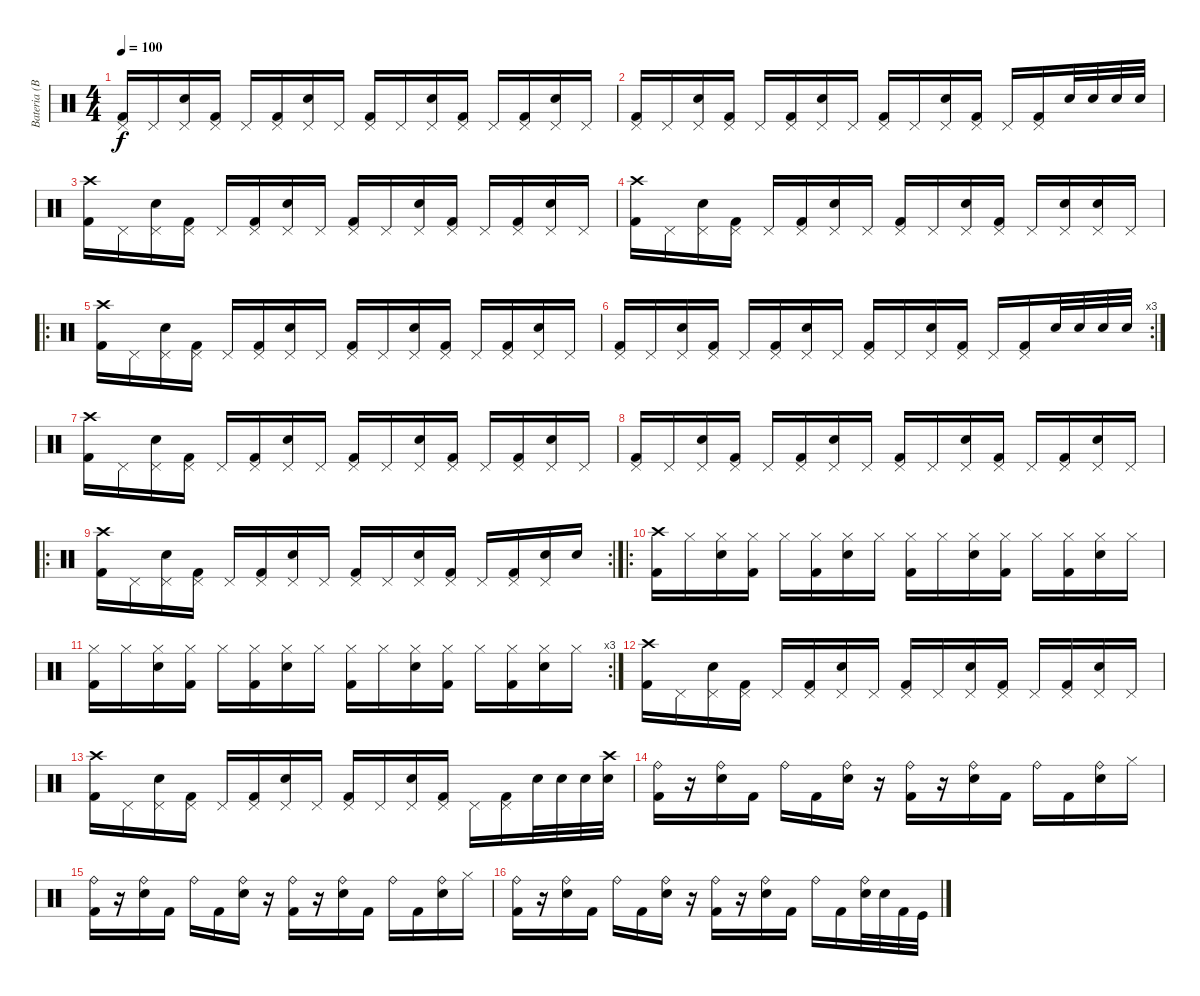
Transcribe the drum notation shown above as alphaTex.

\track ("Bateria (Bonfá)" "Bateria (B") {instrument percussion}
\staff {score}
\articulation defaults
\ts (4 4)
\tempo 100
\clef neutral
\ks c
("Pedal Hi-Hat (hit)" "Kick (hit) 2").16{dy f} "Pedal Hi-Hat (hit)".16 ("Pedal Hi-Hat (hit)" "Electric Snare (hit)").16 ("Pedal Hi-Hat (hit)" "Kick (hit) 2").16 "Pedal Hi-Hat (hit)".16 ("Pedal Hi-Hat (hit)" "Kick (hit) 2").16 ("Pedal Hi-Hat (hit)" "Electric Snare (hit)").16 "Pedal Hi-Hat (hit)".16 ("Pedal Hi-Hat (hit)" "Kick (hit) 2").16 "Pedal Hi-Hat (hit)".16 ("Pedal Hi-Hat (hit)" "Electric Snare (hit)").16 ("Pedal Hi-Hat (hit)" "Kick (hit) 2").16 "Pedal Hi-Hat (hit)".16 ("Pedal Hi-Hat (hit)" "Kick (hit) 2").16 ("Pedal Hi-Hat (hit)" "Electric Snare (hit)").16 "Pedal Hi-Hat (hit)".16 |
("Pedal Hi-Hat (hit)" "Kick (hit) 2").16 "Pedal Hi-Hat (hit)".16 ("Pedal Hi-Hat (hit)" "Electric Snare (hit)").16 ("Pedal Hi-Hat (hit)" "Kick (hit) 2").16 "Pedal Hi-Hat (hit)".16 ("Pedal Hi-Hat (hit)" "Kick (hit) 2").16 ("Pedal Hi-Hat (hit)" "Electric Snare (hit)").16 "Pedal Hi-Hat (hit)".16 ("Pedal Hi-Hat (hit)" "Kick (hit) 2").16 "Pedal Hi-Hat (hit)".16 ("Pedal Hi-Hat (hit)" "Electric Snare (hit)").16 ("Pedal Hi-Hat (hit)" "Kick (hit) 2").16 "Pedal Hi-Hat (hit)".16 ("Pedal Hi-Hat (hit)" "Kick (hit) 2").16 "Electric Snare (hit)".32 "Electric Snare (hit)".32 "Electric Snare (hit)".32 "Electric Snare (hit)".32 |
("Crash high (hit)" "Kick (hit) 2").16 "Pedal Hi-Hat (hit)".16 ("Pedal Hi-Hat (hit)" "Electric Snare (hit)").16 ("Pedal Hi-Hat (hit)" "Kick (hit) 2").16 "Pedal Hi-Hat (hit)".16 ("Pedal Hi-Hat (hit)" "Kick (hit) 2").16 ("Pedal Hi-Hat (hit)" "Electric Snare (hit)").16 "Pedal Hi-Hat (hit)".16 ("Pedal Hi-Hat (hit)" "Kick (hit) 2").16 "Pedal Hi-Hat (hit)".16 ("Pedal Hi-Hat (hit)" "Electric Snare (hit)").16 ("Pedal Hi-Hat (hit)" "Kick (hit) 2").16 "Pedal Hi-Hat (hit)".16 ("Pedal Hi-Hat (hit)" "Kick (hit) 2").16 ("Pedal Hi-Hat (hit)" "Electric Snare (hit)").16 "Pedal Hi-Hat (hit)".16 |
("Crash high (hit)" "Kick (hit) 2").16 "Pedal Hi-Hat (hit)".16 ("Pedal Hi-Hat (hit)" "Electric Snare (hit)").16 ("Pedal Hi-Hat (hit)" "Kick (hit) 2").16 "Pedal Hi-Hat (hit)".16 ("Pedal Hi-Hat (hit)" "Kick (hit) 2").16 ("Pedal Hi-Hat (hit)" "Electric Snare (hit)").16 "Pedal Hi-Hat (hit)".16 ("Pedal Hi-Hat (hit)" "Kick (hit) 2").16 "Pedal Hi-Hat (hit)".16 ("Pedal Hi-Hat (hit)" "Electric Snare (hit)").16 ("Pedal Hi-Hat (hit)" "Kick (hit) 2").16 "Pedal Hi-Hat (hit)".16 ("Pedal Hi-Hat (hit)" "Electric Snare (hit)").16 ("Pedal Hi-Hat (hit)" "Electric Snare (hit)").16 "Pedal Hi-Hat (hit)".16 |
\ro
("Crash high (hit)" "Kick (hit) 2").16 "Pedal Hi-Hat (hit)".16 ("Pedal Hi-Hat (hit)" "Electric Snare (hit)").16 ("Pedal Hi-Hat (hit)" "Kick (hit) 2").16 "Pedal Hi-Hat (hit)".16 ("Pedal Hi-Hat (hit)" "Kick (hit) 2").16 ("Pedal Hi-Hat (hit)" "Electric Snare (hit)").16 "Pedal Hi-Hat (hit)".16 ("Pedal Hi-Hat (hit)" "Kick (hit) 2").16 "Pedal Hi-Hat (hit)".16 ("Pedal Hi-Hat (hit)" "Electric Snare (hit)").16 ("Pedal Hi-Hat (hit)" "Kick (hit) 2").16 "Pedal Hi-Hat (hit)".16 ("Pedal Hi-Hat (hit)" "Kick (hit) 2").16 ("Pedal Hi-Hat (hit)" "Electric Snare (hit)").16 "Pedal Hi-Hat (hit)".16 |
\rc 3
("Pedal Hi-Hat (hit)" "Kick (hit) 2").16 "Pedal Hi-Hat (hit)".16 ("Pedal Hi-Hat (hit)" "Electric Snare (hit)").16 ("Pedal Hi-Hat (hit)" "Kick (hit) 2").16 "Pedal Hi-Hat (hit)".16 ("Pedal Hi-Hat (hit)" "Kick (hit) 2").16 ("Pedal Hi-Hat (hit)" "Electric Snare (hit)").16 "Pedal Hi-Hat (hit)".16 ("Pedal Hi-Hat (hit)" "Kick (hit) 2").16 "Pedal Hi-Hat (hit)".16 ("Pedal Hi-Hat (hit)" "Electric Snare (hit)").16 ("Pedal Hi-Hat (hit)" "Kick (hit) 2").16 "Pedal Hi-Hat (hit)".16 ("Pedal Hi-Hat (hit)" "Kick (hit) 2").16 "Electric Snare (hit)".32 "Electric Snare (hit)".32 "Electric Snare (hit)".32 "Electric Snare (hit)".32 |
("Crash high (hit)" "Kick (hit) 2").16 "Pedal Hi-Hat (hit)".16 ("Pedal Hi-Hat (hit)" "Electric Snare (hit)").16 ("Pedal Hi-Hat (hit)" "Kick (hit) 2").16 "Pedal Hi-Hat (hit)".16 ("Pedal Hi-Hat (hit)" "Kick (hit) 2").16 ("Pedal Hi-Hat (hit)" "Electric Snare (hit)").16 "Pedal Hi-Hat (hit)".16 ("Pedal Hi-Hat (hit)" "Kick (hit) 2").16 "Pedal Hi-Hat (hit)".16 ("Pedal Hi-Hat (hit)" "Electric Snare (hit)").16 ("Pedal Hi-Hat (hit)" "Kick (hit) 2").16 "Pedal Hi-Hat (hit)".16 ("Pedal Hi-Hat (hit)" "Kick (hit) 2").16 ("Pedal Hi-Hat (hit)" "Electric Snare (hit)").16 "Pedal Hi-Hat (hit)".16 |
("Pedal Hi-Hat (hit)" "Kick (hit) 2").16 "Pedal Hi-Hat (hit)".16 ("Pedal Hi-Hat (hit)" "Electric Snare (hit)").16 ("Pedal Hi-Hat (hit)" "Kick (hit) 2").16 "Pedal Hi-Hat (hit)".16 ("Pedal Hi-Hat (hit)" "Kick (hit) 2").16 ("Pedal Hi-Hat (hit)" "Electric Snare (hit)").16 "Pedal Hi-Hat (hit)".16 ("Pedal Hi-Hat (hit)" "Kick (hit) 2").16 "Pedal Hi-Hat (hit)".16 ("Pedal Hi-Hat (hit)" "Electric Snare (hit)").16 ("Pedal Hi-Hat (hit)" "Kick (hit) 2").16 "Pedal Hi-Hat (hit)".16 ("Pedal Hi-Hat (hit)" "Kick (hit) 2").16 ("Pedal Hi-Hat (hit)" "Electric Snare (hit)").16 "Pedal Hi-Hat (hit)".16 |
\ro
\rc 2
("Crash high (hit)" "Kick (hit) 2").16 "Pedal Hi-Hat (hit)".16 ("Pedal Hi-Hat (hit)" "Electric Snare (hit)").16 ("Pedal Hi-Hat (hit)" "Kick (hit) 2").16 "Pedal Hi-Hat (hit)".16 ("Pedal Hi-Hat (hit)" "Kick (hit) 2").16 ("Pedal Hi-Hat (hit)" "Electric Snare (hit)").16 "Pedal Hi-Hat (hit)".16 ("Pedal Hi-Hat (hit)" "Kick (hit) 2").16 "Pedal Hi-Hat (hit)".16 ("Pedal Hi-Hat (hit)" "Electric Snare (hit)").16 ("Pedal Hi-Hat (hit)" "Kick (hit) 2").16 "Pedal Hi-Hat (hit)".16 ("Pedal Hi-Hat (hit)" "Kick (hit) 2").16 ("Pedal Hi-Hat (hit)" "Electric Snare (hit)").16 "Electric Snare (hit)".16 |
\ro
("Crash high (hit)" "Kick (hit) 2").16 "Hi-Hat (closed)".16 ("Hi-Hat (closed)" "Electric Snare (hit)").16 ("Hi-Hat (closed)" "Kick (hit) 2").16 "Hi-Hat (closed)".16 ("Hi-Hat (closed)" "Kick (hit) 2").16 ("Hi-Hat (closed)" "Electric Snare (hit)").16 "Hi-Hat (closed)".16 ("Hi-Hat (closed)" "Kick (hit) 2").16 "Hi-Hat (closed)".16 ("Hi-Hat (closed)" "Electric Snare (hit)").16 ("Hi-Hat (closed)" "Kick (hit) 2").16 "Hi-Hat (closed)".16 ("Hi-Hat (closed)" "Kick (hit) 2").16 ("Hi-Hat (closed)" "Electric Snare (hit)").16 "Hi-Hat (closed)".16 |
\rc 3
("Hi-Hat (closed)" "Kick (hit) 2").16 "Hi-Hat (closed)".16 ("Hi-Hat (closed)" "Electric Snare (hit)").16 ("Hi-Hat (closed)" "Kick (hit) 2").16 "Hi-Hat (closed)".16 ("Hi-Hat (closed)" "Kick (hit) 2").16 ("Hi-Hat (closed)" "Electric Snare (hit)").16 "Hi-Hat (closed)".16 ("Hi-Hat (closed)" "Kick (hit) 2").16 "Hi-Hat (closed)".16 ("Hi-Hat (closed)" "Electric Snare (hit)").16 ("Hi-Hat (closed)" "Kick (hit) 2").16 "Hi-Hat (closed)".16 ("Hi-Hat (closed)" "Kick (hit) 2").16 ("Hi-Hat (closed)" "Electric Snare (hit)").16 "Hi-Hat (closed)".16 |
("Crash high (hit)" "Kick (hit) 2").16 "Pedal Hi-Hat (hit)".16 ("Pedal Hi-Hat (hit)" "Electric Snare (hit)").16 ("Pedal Hi-Hat (hit)" "Kick (hit) 2").16 "Pedal Hi-Hat (hit)".16 ("Pedal Hi-Hat (hit)" "Kick (hit) 2").16 ("Pedal Hi-Hat (hit)" "Electric Snare (hit)").16 "Pedal Hi-Hat (hit)".16 ("Pedal Hi-Hat (hit)" "Kick (hit) 2").16 "Pedal Hi-Hat (hit)".16 ("Pedal Hi-Hat (hit)" "Electric Snare (hit)").16 ("Pedal Hi-Hat (hit)" "Kick (hit) 2").16 "Pedal Hi-Hat (hit)".16 ("Pedal Hi-Hat (hit)" "Kick (hit) 2").16 ("Pedal Hi-Hat (hit)" "Electric Snare (hit)").16 "Pedal Hi-Hat (hit)".16 |
("Crash high (hit)" "Kick (hit) 2").16 "Pedal Hi-Hat (hit)".16 ("Pedal Hi-Hat (hit)" "Electric Snare (hit)").16 ("Pedal Hi-Hat (hit)" "Kick (hit) 2").16 "Pedal Hi-Hat (hit)".16 ("Pedal Hi-Hat (hit)" "Kick (hit) 2").16 ("Pedal Hi-Hat (hit)" "Electric Snare (hit)").16 "Pedal Hi-Hat (hit)".16 ("Pedal Hi-Hat (hit)" "Kick (hit) 2").16 "Pedal Hi-Hat (hit)".16 ("Pedal Hi-Hat (hit)" "Electric Snare (hit)").16 ("Pedal Hi-Hat (hit)" "Kick (hit) 2").16 "Pedal Hi-Hat (hit)".16 ("Pedal Hi-Hat (hit)" "Kick (hit) 2").16 "Electric Snare (hit)".32 "Electric Snare (hit)".32 "Electric Snare (hit)".32 ("Crash high (hit)" "Electric Snare (hit)").32 |
("Ride (bell)" "Kick (hit) 2").16 r.16 ("Ride (bell)" "Electric Snare (hit)").16 "Kick (hit) 2".16 "Ride (bell)".16 "Kick (hit) 2".16 ("Ride (bell)" "Electric Snare (hit)").16 r.16 ("Ride (bell)" "Kick (hit) 2").16 r.16 ("Ride (bell)" "Electric Snare (hit)").16 "Kick (hit) 2".16 "Ride (bell)".16 "Kick (hit) 2".16 ("Ride (bell)" "Electric Snare (hit)").16 "Hi-Hat (closed)".16 |
("Ride (bell)" "Kick (hit) 2").16 r.16 ("Ride (bell)" "Electric Snare (hit)").16 "Kick (hit) 2".16 "Ride (bell)".16 "Kick (hit) 2".16 ("Ride (bell)" "Electric Snare (hit)").16 r.16 ("Ride (bell)" "Kick (hit) 2").16 r.16 ("Ride (bell)" "Electric Snare (hit)").16 "Kick (hit) 2".16 "Ride (bell)".16 "Kick (hit) 2".16 ("Ride (bell)" "Electric Snare (hit)").16 "Hi-Hat (closed)".16 |
("Ride (bell)" "Kick (hit) 2").16 r.16 ("Ride (bell)" "Electric Snare (hit)").16 "Kick (hit) 2".16 "Ride (bell)".16 "Kick (hit) 2".16 ("Ride (bell)" "Electric Snare (hit)").16 r.16 ("Ride (bell)" "Kick (hit) 2").16 r.16 ("Ride (bell)" "Electric Snare (hit)").16 "Kick (hit) 2".16 "Ride (bell)".16 "Kick (hit) 2".16 ("Ride (bell)" "Electric Snare (hit)").32 "Electric Snare (hit)".32 "Kick (hit) 2".32 "Kick (hit)".32
